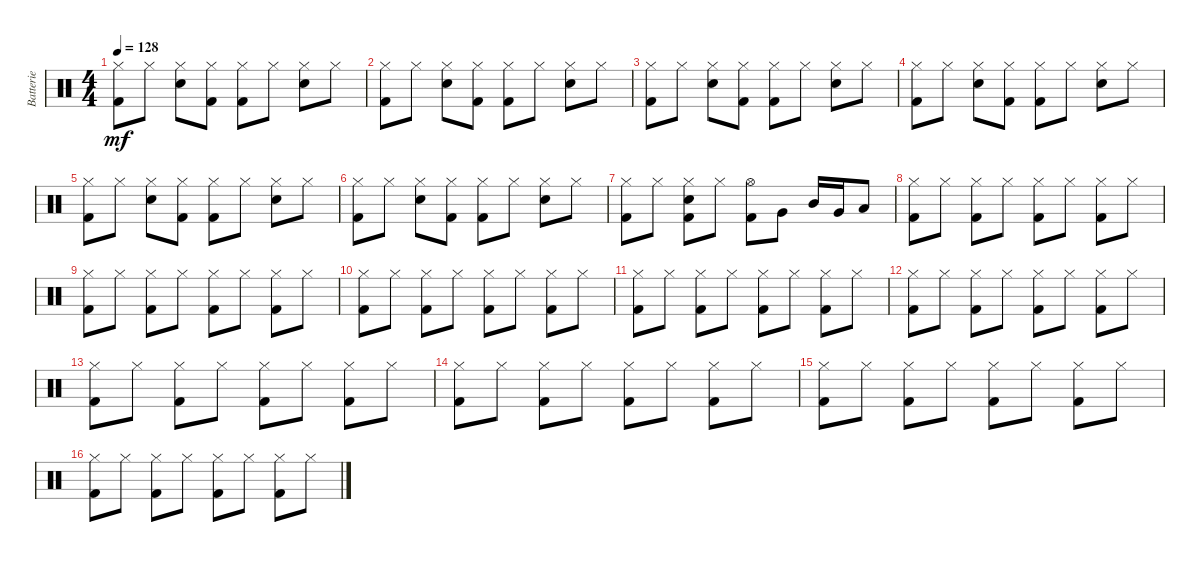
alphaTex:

\track ("Batterie" "Batterie") {instrument percussion}
\staff {score}
\articulation defaults
\ts (4 4)
\tempo 128
\clef neutral
\ks c
("Hi-Hat (closed)" "Kick (hit) 2").8{dy mf} "Hi-Hat (closed)".8 ("Hi-Hat (closed)" "Snare (hit) 2").8 ("Hi-Hat (closed)" "Kick (hit) 2").8 ("Hi-Hat (closed)" "Kick (hit) 2").8 "Hi-Hat (closed)".8 ("Hi-Hat (closed)" "Snare (hit) 2").8 "Hi-Hat (closed)".8 |
("Hi-Hat (closed)" "Kick (hit) 2").8 "Hi-Hat (closed)".8 ("Hi-Hat (closed)" "Snare (hit) 2").8 ("Hi-Hat (closed)" "Kick (hit) 2").8 ("Hi-Hat (closed)" "Kick (hit) 2").8 "Hi-Hat (closed)".8 ("Hi-Hat (closed)" "Snare (hit) 2").8 "Hi-Hat (closed)".8 |
("Hi-Hat (closed)" "Kick (hit) 2").8 "Hi-Hat (closed)".8 ("Hi-Hat (closed)" "Snare (hit) 2").8 ("Hi-Hat (closed)" "Kick (hit) 2").8 ("Hi-Hat (closed)" "Kick (hit) 2").8 "Hi-Hat (closed)".8 ("Hi-Hat (closed)" "Snare (hit) 2").8 "Hi-Hat (closed)".8 |
("Hi-Hat (closed)" "Kick (hit) 2").8 "Hi-Hat (closed)".8 ("Hi-Hat (closed)" "Snare (hit) 2").8 ("Hi-Hat (closed)" "Kick (hit) 2").8 ("Hi-Hat (closed)" "Kick (hit) 2").8 "Hi-Hat (closed)".8 ("Hi-Hat (closed)" "Snare (hit) 2").8 "Hi-Hat (closed)".8 |
("Hi-Hat (closed)" "Kick (hit) 2").8 "Hi-Hat (closed)".8 ("Hi-Hat (closed)" "Snare (hit) 2").8 ("Hi-Hat (closed)" "Kick (hit) 2").8 ("Hi-Hat (closed)" "Kick (hit) 2").8 "Hi-Hat (closed)".8 ("Hi-Hat (closed)" "Snare (hit) 2").8 "Hi-Hat (closed)".8 |
("Hi-Hat (closed)" "Kick (hit) 2").8 "Hi-Hat (closed)".8 ("Hi-Hat (closed)" "Snare (hit) 2").8 ("Hi-Hat (closed)" "Kick (hit) 2").8 ("Hi-Hat (closed)" "Kick (hit) 2").8 "Hi-Hat (closed)".8 ("Hi-Hat (closed)" "Snare (hit) 2").8 "Hi-Hat (closed)".8 |
("Hi-Hat (closed)" "Kick (hit) 2").8 "Hi-Hat (closed)".8 ("Hi-Hat (closed)" "Snare (hit) 2" "Kick (hit) 2").8 "Hi-Hat (closed)".8 ("Hi-Hat (open)" "Kick (hit) 2").8 "Very Low Tom (hit)".8 "Mid Tom (hit)".16 "Very Low Tom (hit)".16 "Low Floor Tom (hit)".8 |
("Hi-Hat (closed)" "Kick (hit) 2").8 "Hi-Hat (closed)".8 ("Hi-Hat (closed)" "Kick (hit) 2").8 "Hi-Hat (closed)".8 ("Hi-Hat (closed)" "Kick (hit) 2").8 "Hi-Hat (closed)".8 ("Hi-Hat (closed)" "Kick (hit) 2").8 "Hi-Hat (closed)".8 |
("Hi-Hat (closed)" "Kick (hit) 2").8 "Hi-Hat (closed)".8 ("Hi-Hat (closed)" "Kick (hit) 2").8 "Hi-Hat (closed)".8 ("Hi-Hat (closed)" "Kick (hit) 2").8 "Hi-Hat (closed)".8 ("Hi-Hat (closed)" "Kick (hit) 2").8 "Hi-Hat (closed)".8 |
("Hi-Hat (closed)" "Kick (hit) 2").8 "Hi-Hat (closed)".8 ("Hi-Hat (closed)" "Kick (hit) 2").8 "Hi-Hat (closed)".8 ("Hi-Hat (closed)" "Kick (hit) 2").8 "Hi-Hat (closed)".8 ("Hi-Hat (closed)" "Kick (hit) 2").8 "Hi-Hat (closed)".8 |
("Hi-Hat (closed)" "Kick (hit) 2").8 "Hi-Hat (closed)".8 ("Hi-Hat (closed)" "Kick (hit) 2").8 "Hi-Hat (closed)".8 ("Hi-Hat (closed)" "Kick (hit) 2").8 "Hi-Hat (closed)".8 ("Hi-Hat (closed)" "Kick (hit) 2").8 "Hi-Hat (closed)".8 |
("Hi-Hat (closed)" "Kick (hit) 2").8 "Hi-Hat (closed)".8 ("Hi-Hat (closed)" "Kick (hit) 2").8 "Hi-Hat (closed)".8 ("Hi-Hat (closed)" "Kick (hit) 2").8 "Hi-Hat (closed)".8 ("Hi-Hat (closed)" "Kick (hit) 2").8 "Hi-Hat (closed)".8 |
("Hi-Hat (closed)" "Kick (hit) 2").8 "Hi-Hat (closed)".8 ("Hi-Hat (closed)" "Kick (hit) 2").8 "Hi-Hat (closed)".8 ("Hi-Hat (closed)" "Kick (hit) 2").8 "Hi-Hat (closed)".8 ("Hi-Hat (closed)" "Kick (hit) 2").8 "Hi-Hat (closed)".8 |
("Hi-Hat (closed)" "Kick (hit) 2").8 "Hi-Hat (closed)".8 ("Hi-Hat (closed)" "Kick (hit) 2").8 "Hi-Hat (closed)".8 ("Hi-Hat (closed)" "Kick (hit) 2").8 "Hi-Hat (closed)".8 ("Hi-Hat (closed)" "Kick (hit) 2").8 "Hi-Hat (closed)".8 |
("Hi-Hat (closed)" "Kick (hit) 2").8 "Hi-Hat (closed)".8 ("Hi-Hat (closed)" "Kick (hit) 2").8 "Hi-Hat (closed)".8 ("Hi-Hat (closed)" "Kick (hit) 2").8 "Hi-Hat (closed)".8 ("Hi-Hat (closed)" "Kick (hit) 2").8 "Hi-Hat (closed)".8 |
("Hi-Hat (closed)" "Kick (hit) 2").8 "Hi-Hat (closed)".8 ("Hi-Hat (closed)" "Kick (hit) 2").8 "Hi-Hat (closed)".8 ("Hi-Hat (closed)" "Kick (hit) 2").8 "Hi-Hat (closed)".8 ("Hi-Hat (closed)" "Kick (hit) 2").8 "Hi-Hat (closed)".8
